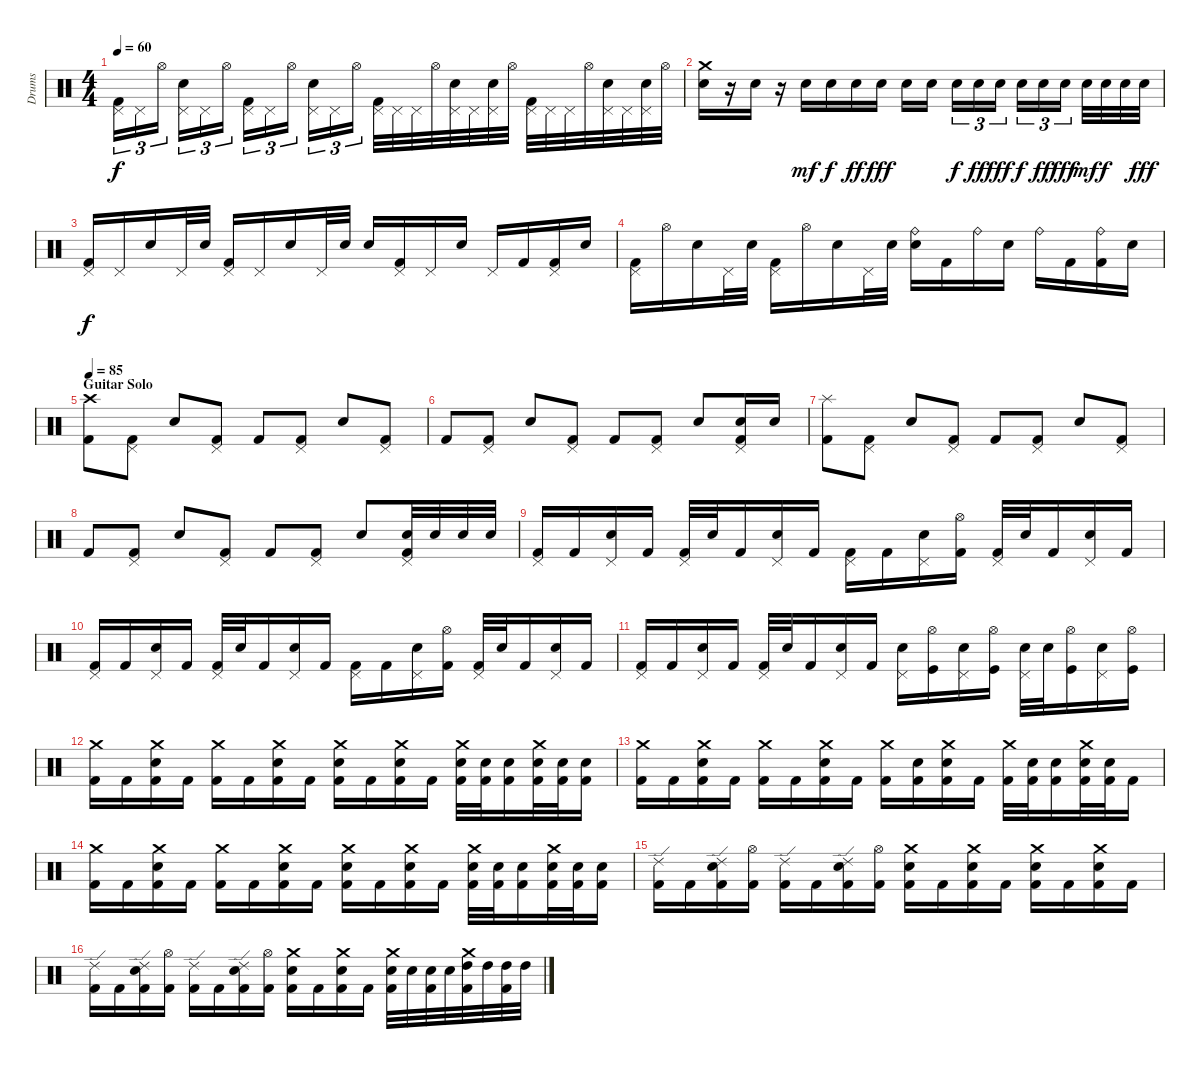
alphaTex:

\track ("Drums" "Drums") {instrument percussion}
\staff {score}
\articulation defaults
\ts (4 4)
\tempo 60
\clef neutral
\ks c
("Pedal Hi-Hat (hit)" "Kick (hit) 2").16{tu (3 2) dy f} "Pedal Hi-Hat (hit)".16{tu (3 2)} "Hi-Hat (open)".16{tu (3 2)} ("Pedal Hi-Hat (hit)" "Electric Snare (hit)").16{tu (3 2)} "Pedal Hi-Hat (hit)".16{tu (3 2)} "Hi-Hat (open)".16{tu (3 2)} ("Pedal Hi-Hat (hit)" "Kick (hit) 2").16{tu (3 2)} "Pedal Hi-Hat (hit)".16{tu (3 2)} "Hi-Hat (open)".16{tu (3 2)} ("Pedal Hi-Hat (hit)" "Electric Snare (hit)").16{tu (3 2)} "Pedal Hi-Hat (hit)".16{tu (3 2)} "Hi-Hat (open)".16{tu (3 2)} ("Pedal Hi-Hat (hit)" "Kick (hit) 2").32 "Pedal Hi-Hat (hit)".32 "Pedal Hi-Hat (hit)".32 "Hi-Hat (open)".32 ("Pedal Hi-Hat (hit)" "Electric Snare (hit)").32 "Pedal Hi-Hat (hit)".32 ("Pedal Hi-Hat (hit)" "Electric Snare (hit)").32 "Hi-Hat (open)".32 ("Pedal Hi-Hat (hit)" "Kick (hit) 2").32 "Pedal Hi-Hat (hit)".32 "Pedal Hi-Hat (hit)".32 "Hi-Hat (open)".32 ("Pedal Hi-Hat (hit)" "Electric Snare (hit)").32 "Pedal Hi-Hat (hit)".32 ("Pedal Hi-Hat (hit)" "Electric Snare (hit)").32 "Hi-Hat (open)".32 |
("Crash medium (hit)" "Electric Snare (hit)").16 r.16 "Electric Snare (hit)".16 r.16 "Electric Snare (hit)".16{dy mf} "Electric Snare (hit)".16{dy f} "Electric Snare (hit)".16{dy ff} "Electric Snare (hit)".16{dy fff} "Electric Snare (hit)".16 "Electric Snare (hit)".16 "Electric Snare (hit)".16{tu (3 2) dy f} "Electric Snare (hit)".16{tu (3 2) dy ff} "Electric Snare (hit)".16{tu (3 2) dy fff} "Electric Snare (hit)".16{tu (3 2) dy f} "Electric Snare (hit)".16{tu (3 2) dy ff} "Electric Snare (hit)".16{tu (3 2) dy fff} "Electric Snare (hit)".32{dy mf} "Electric Snare (hit)".32{dy f} "Electric Snare (hit)".32 "Electric Snare (hit)".32{dy fff} |
("Pedal Hi-Hat (hit)" "Kick (hit) 2").16{dy f} "Pedal Hi-Hat (hit)".16 "Electric Snare (hit)".16 "Pedal Hi-Hat (hit)".32 "Electric Snare (hit)".32 ("Pedal Hi-Hat (hit)" "Kick (hit) 2").16 "Pedal Hi-Hat (hit)".16 "Electric Snare (hit)".16 "Pedal Hi-Hat (hit)".32 "Electric Snare (hit)".32 "Electric Snare (hit)".16 ("Pedal Hi-Hat (hit)" "Kick (hit) 2").16 "Pedal Hi-Hat (hit)".16 "Electric Snare (hit)".16 "Pedal Hi-Hat (hit)".16 "Kick (hit) 2".16 ("Pedal Hi-Hat (hit)" "Kick (hit) 2").16 "Electric Snare (hit)".16 |
("Pedal Hi-Hat (hit)" "Kick (hit) 2").16 "Hi-Hat (open)".16 "Electric Snare (hit)".16 "Pedal Hi-Hat (hit)".32 "Electric Snare (hit)".32 ("Pedal Hi-Hat (hit)" "Kick (hit) 2").16 "Hi-Hat (open)".16 "Electric Snare (hit)".16 "Pedal Hi-Hat (hit)".32 "Electric Snare (hit)".32 ("Ride (bell)" "Electric Snare (hit)").16 "Kick (hit) 2".16 "Ride (bell)".16 "Electric Snare (hit)".16 "Ride (bell)".16 "Kick (hit) 2".16 ("Ride (bell)" "Kick (hit) 2").16 "Electric Snare (hit)".16 |
\section ("" "Guitar Solo")
\tempo 85
("Crash high (hit)" "Kick (hit) 2").8 ("Pedal Hi-Hat (hit)" "Kick (hit) 2").8 "Electric Snare (hit)".8 ("Pedal Hi-Hat (hit)" "Kick (hit) 2").8 "Kick (hit) 2".8 ("Pedal Hi-Hat (hit)" "Kick (hit) 2").8 "Electric Snare (hit)".8 ("Pedal Hi-Hat (hit)" "Kick (hit) 2").8 |
"Kick (hit) 2".8 ("Pedal Hi-Hat (hit)" "Kick (hit) 2").8 "Electric Snare (hit)".8 ("Pedal Hi-Hat (hit)" "Kick (hit) 2").8 "Kick (hit) 2".8 ("Pedal Hi-Hat (hit)" "Kick (hit) 2").8 "Electric Snare (hit)".8 ("Pedal Hi-Hat (hit)" "Electric Snare (hit)" "Kick (hit) 2").16 "Electric Snare (hit)".16 |
("Splash (hit)" "Kick (hit) 2").8 ("Pedal Hi-Hat (hit)" "Kick (hit) 2").8 "Electric Snare (hit)".8 ("Pedal Hi-Hat (hit)" "Kick (hit) 2").8 "Kick (hit) 2".8 ("Pedal Hi-Hat (hit)" "Kick (hit) 2").8 "Electric Snare (hit)".8 ("Pedal Hi-Hat (hit)" "Kick (hit) 2").8 |
"Kick (hit) 2".8 ("Pedal Hi-Hat (hit)" "Kick (hit) 2").8 "Electric Snare (hit)".8 ("Pedal Hi-Hat (hit)" "Kick (hit) 2").8 "Kick (hit) 2".8 ("Pedal Hi-Hat (hit)" "Kick (hit) 2").8 "Electric Snare (hit)".8 ("Pedal Hi-Hat (hit)" "Electric Snare (hit)" "Kick (hit) 2").32 "Electric Snare (hit)".32 "Electric Snare (hit)".32 "Electric Snare (hit)".32 |
("Pedal Hi-Hat (hit)" "Kick (hit) 2").16 "Kick (hit) 2".16 ("Pedal Hi-Hat (hit)" "Electric Snare (hit)").16 "Kick (hit) 2".16 ("Pedal Hi-Hat (hit)" "Kick (hit) 2").32 "Electric Snare (hit)".32 "Kick (hit) 2".16 ("Pedal Hi-Hat (hit)" "Electric Snare (hit)").16 "Kick (hit) 2".16 ("Pedal Hi-Hat (hit)" "Kick (hit) 2").16 "Kick (hit) 2".16 ("Pedal Hi-Hat (hit)" "Electric Snare (hit)").16 ("Hi-Hat (open)" "Kick (hit) 2").16 ("Pedal Hi-Hat (hit)" "Kick (hit) 2").32 "Electric Snare (hit)".32 "Kick (hit) 2".16 ("Pedal Hi-Hat (hit)" "Electric Snare (hit)").16 "Kick (hit) 2".16 |
("Pedal Hi-Hat (hit)" "Kick (hit) 2").16 "Kick (hit) 2".16 ("Pedal Hi-Hat (hit)" "Electric Snare (hit)").16 "Kick (hit) 2".16 ("Pedal Hi-Hat (hit)" "Kick (hit) 2").32 "Electric Snare (hit)".32 "Kick (hit) 2".16 ("Pedal Hi-Hat (hit)" "Electric Snare (hit)").16 "Kick (hit) 2".16 ("Pedal Hi-Hat (hit)" "Kick (hit) 2").16 "Kick (hit) 2".16 ("Pedal Hi-Hat (hit)" "Electric Snare (hit)").16 ("Hi-Hat (open)" "Kick (hit) 2").16 ("Pedal Hi-Hat (hit)" "Kick (hit) 2").32 "Electric Snare (hit)".32 "Kick (hit) 2".16 ("Pedal Hi-Hat (hit)" "Electric Snare (hit)").16 "Kick (hit) 2".16 |
("Pedal Hi-Hat (hit)" "Kick (hit) 2").16 "Kick (hit) 2".16 ("Pedal Hi-Hat (hit)" "Electric Snare (hit)").16 "Kick (hit) 2".16 ("Pedal Hi-Hat (hit)" "Kick (hit) 2").32 "Electric Snare (hit)".32 "Kick (hit) 2".16 ("Pedal Hi-Hat (hit)" "Electric Snare (hit)").16 "Kick (hit) 2".16 ("Pedal Hi-Hat (hit)" "Electric Snare (hit)").16 ("Hi-Hat (open)" "Kick (hit)").16 ("Pedal Hi-Hat (hit)" "Electric Snare (hit)").16 ("Hi-Hat (open)" "Kick (hit)").16 ("Pedal Hi-Hat (hit)" "Electric Snare (hit)").32 "Electric Snare (hit)".32 ("Hi-Hat (open)" "Kick (hit)").16 ("Pedal Hi-Hat (hit)" "Electric Snare (hit)").16 ("Hi-Hat (open)" "Kick (hit)").16 |
("Crash medium (hit)" "Kick (hit) 2").16 "Kick (hit) 2".16 ("Crash medium (hit)" "Electric Snare (hit)" "Kick (hit) 2").16 "Kick (hit) 2".16 ("Crash medium (hit)" "Kick (hit) 2").16 "Kick (hit) 2".16 ("Crash medium (hit)" "Electric Snare (hit)" "Kick (hit) 2").16 "Kick (hit) 2".16 ("Crash medium (hit)" "Electric Snare (hit)" "Kick (hit) 2").16 "Kick (hit) 2".16 ("Crash medium (hit)" "Electric Snare (hit)" "Kick (hit) 2").16 "Kick (hit) 2".16 ("Crash medium (hit)" "Electric Snare (hit)" "Kick (hit) 2").32 ("Electric Snare (hit)" "Kick (hit) 2").32 ("Electric Snare (hit)" "Kick (hit) 2").16 ("Crash medium (hit)" "Electric Snare (hit)" "Kick (hit) 2").32 ("Electric Snare (hit)" "Kick (hit) 2").32 ("Electric Snare (hit)" "Kick (hit) 2").16 |
("Crash medium (hit)" "Kick (hit) 2").16 "Kick (hit) 2".16 ("Crash medium (hit)" "Electric Snare (hit)" "Kick (hit) 2").16 "Kick (hit) 2".16 ("Crash medium (hit)" "Kick (hit) 2").16 "Kick (hit) 2".16 ("Crash medium (hit)" "Electric Snare (hit)" "Kick (hit) 2").16 "Kick (hit) 2".16 ("Crash medium (hit)" "Kick (hit) 2").16 ("Electric Snare (hit)" "Kick (hit) 2").16 ("Crash medium (hit)" "Electric Snare (hit)" "Kick (hit) 2").16 "Kick (hit) 2".16 ("Crash medium (hit)" "Kick (hit) 2").32 ("Electric Snare (hit)" "Kick (hit) 2").32 ("Electric Snare (hit)" "Kick (hit) 2").16 ("Crash medium (hit)" "Electric Snare (hit)" "Kick (hit) 2").32 ("Electric Snare (hit)" "Kick (hit) 2").32 "Kick (hit) 2".16 |
("Crash medium (hit)" "Kick (hit) 2").16 "Kick (hit) 2".16 ("Crash medium (hit)" "Electric Snare (hit)" "Kick (hit) 2").16 "Kick (hit) 2".16 ("Crash medium (hit)" "Kick (hit) 2").16 "Kick (hit) 2".16 ("Crash medium (hit)" "Electric Snare (hit)" "Kick (hit) 2").16 "Kick (hit) 2".16 ("Crash medium (hit)" "Electric Snare (hit)" "Kick (hit) 2").16 "Kick (hit) 2".16 ("Crash medium (hit)" "Electric Snare (hit)" "Kick (hit) 2").16 "Kick (hit) 2".16 ("Crash medium (hit)" "Electric Snare (hit)" "Kick (hit) 2").32 ("Electric Snare (hit)" "Kick (hit) 2").32 ("Electric Snare (hit)" "Kick (hit) 2").16 ("Crash medium (hit)" "Electric Snare (hit)" "Kick (hit) 2").32 ("Electric Snare (hit)" "Kick (hit) 2").32 ("Electric Snare (hit)" "Kick (hit) 2").16 |
("Ride (edge) 2" "Kick (hit) 2").16 "Kick (hit) 2".16 ("Ride (edge) 2" "Electric Snare (hit)" "Kick (hit) 2").16 ("Hi-Hat (open)" "Kick (hit) 2").16 ("Ride (edge) 2" "Kick (hit) 2").16 "Kick (hit) 2".16 ("Ride (edge) 2" "Electric Snare (hit)" "Kick (hit) 2").16 ("Hi-Hat (open)" "Kick (hit) 2").16 ("Crash medium (hit)" "Electric Snare (hit)" "Kick (hit) 2").16 "Kick (hit) 2".16 ("Crash medium (hit)" "Electric Snare (hit)" "Kick (hit) 2").16 "Kick (hit) 2".16 ("Crash medium (hit)" "Electric Snare (hit)" "Kick (hit) 2").16 "Kick (hit) 2".16 ("Crash medium (hit)" "Electric Snare (hit)" "Kick (hit) 2").16 "Kick (hit) 2".16 |
("Ride (edge) 2" "Kick (hit) 2").16 "Kick (hit) 2".16 ("Ride (edge) 2" "Electric Snare (hit)" "Kick (hit) 2").16 ("Hi-Hat (open)" "Kick (hit) 2").16 ("Ride (edge) 2" "Kick (hit) 2").16 "Kick (hit) 2".16 ("Ride (edge) 2" "Electric Snare (hit)" "Kick (hit) 2").16 ("Hi-Hat (open)" "Kick (hit) 2").16 ("Crash medium (hit)" "Electric Snare (hit)" "Kick (hit) 2").16 "Kick (hit) 2".16 ("Crash medium (hit)" "Electric Snare (hit)" "Kick (hit) 2").16 "Kick (hit) 2".16 ("Crash medium (hit)" "Electric Snare (hit)" "Kick (hit) 2").32 "Electric Snare (hit)".32 ("Electric Snare (hit)" "Kick (hit) 2").32 "Electric Snare (hit)".32 ("Crash medium (hit)" "High Tom (hit)" "Kick (hit) 2").32 "High Tom (hit)".32 ("High Tom (hit)" "Kick (hit) 2").32 "High Tom (hit)".32
